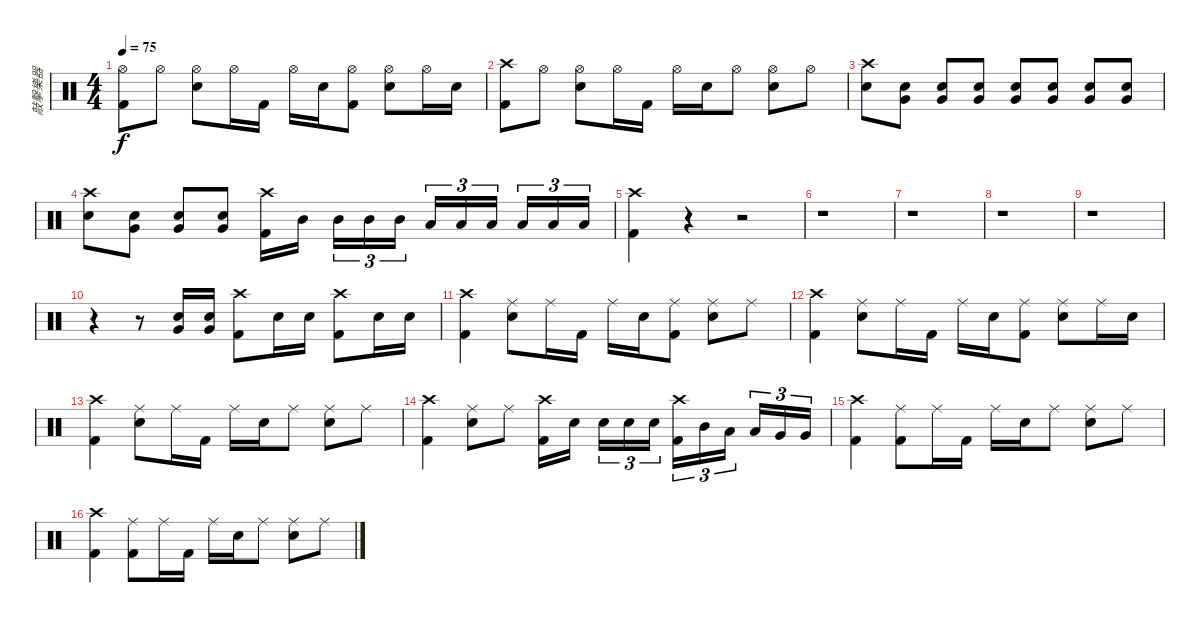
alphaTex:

\track ("敲擊樂器" "敲擊樂器") {instrument percussion}
\staff {score}
\articulation defaults
\ts (4 4)
\tempo 75
\clef neutral
\ks c
("Hi-Hat (open)" "Kick (hit) 2").8{dy f} "Hi-Hat (open)".8 ("Hi-Hat (open)" "Snare (hit) 2").8 "Hi-Hat (open)".16 "Kick (hit) 2".16 "Hi-Hat (open)".16 "Snare (hit) 2".16 ("Hi-Hat (open)" "Kick (hit) 2").8 ("Hi-Hat (open)" "Snare (hit) 2").8 "Hi-Hat (open)".16 "Snare (hit) 2".16 |
("Crash high (hit)" "Kick (hit) 2").8 "Hi-Hat (open)".8 ("Hi-Hat (open)" "Snare (hit) 2").8 "Hi-Hat (open)".16 "Kick (hit) 2".16 "Hi-Hat (open)".16 "Snare (hit) 2".16 "Hi-Hat (open)".8 ("Hi-Hat (open)" "Snare (hit) 2").8 "Hi-Hat (open)".8 |
("Crash high (hit)" "Snare (hit) 2").8 ("Snare (hit) 2" "Very Low Tom (hit)").8 ("Snare (hit) 2" "Very Low Tom (hit)").8 ("Snare (hit) 2" "Very Low Tom (hit)").8 ("Snare (hit) 2" "Very Low Tom (hit)").8 ("Snare (hit) 2" "Very Low Tom (hit)").8 ("Snare (hit) 2" "Very Low Tom (hit)").8 ("Snare (hit) 2" "Very Low Tom (hit)").8 |
("Crash high (hit)" "Snare (hit) 2").8 ("Snare (hit) 2" "Very Low Tom (hit)").8 ("Snare (hit) 2" "Very Low Tom (hit)").8 ("Snare (hit) 2" "Very Low Tom (hit)").8 ("Crash high (hit)" "Kick (hit) 2").16 "Mid Tom (hit)".16 "Mid Tom (hit)".16{tu (3 2)} "Mid Tom (hit)".16{tu (3 2)} "Mid Tom (hit)".16{tu (3 2)} "Low Tom (hit)".16{tu (3 2)} "Low Tom (hit)".16{tu (3 2)} "Low Tom (hit)".16{tu (3 2)} "Low Tom (hit)".16{tu (3 2)} "Low Tom (hit)".16{tu (3 2)} "Low Tom (hit)".16{tu (3 2)} |
("Kick (hit) 2" "Crash high (hit)").4 r.4 r.2 |
r.1 |
r.1 |
r.1 |
r.1 |
r.4 r.8 ("Very Low Tom (hit)" "Snare (hit) 2").16 ("Very Low Tom (hit)" "Snare (hit) 2").16 ("Crash high (hit)" "Kick (hit) 2").8 "Snare (hit) 2".16 "Snare (hit) 2".16 ("Crash high (hit)" "Kick (hit) 2").8 "Snare (hit) 2".16 "Snare (hit) 2".16 |
("Crash high (hit)" "Kick (hit) 2").4 ("Ride (middle)" "Snare (hit) 2").8 "Ride (middle)".16 "Kick (hit) 2".16 "Ride (middle)".16 "Snare (hit) 2".16 ("Ride (middle)" "Kick (hit) 2").8 ("Ride (middle)" "Snare (hit) 2").8 "Ride (middle)".8 |
("Crash high (hit)" "Kick (hit) 2").4 ("Ride (middle)" "Snare (hit) 2").8 "Ride (middle)".16 "Kick (hit) 2".16 "Ride (middle)".16 "Snare (hit) 2".16 ("Ride (middle)" "Kick (hit) 2").8 ("Ride (middle)" "Snare (hit) 2").8 "Ride (middle)".16 "Snare (hit) 2".16 |
("Crash high (hit)" "Kick (hit) 2").4 ("Ride (middle)" "Snare (hit) 2").8 "Ride (middle)".16 "Kick (hit) 2".16 "Ride (middle)".16 "Snare (hit) 2".16 "Ride (middle)".8 ("Ride (middle)" "Snare (hit) 2").8 "Ride (middle)".8 |
("Kick (hit) 2" "Crash high (hit)").4 ("Ride (middle)" "Snare (hit) 2").8 "Ride (middle)".8 ("Crash high (hit)" "Kick (hit) 2").16 "Snare (hit) 2".16 "Snare (hit) 2".16{tu (3 2)} "Snare (hit) 2".16{tu (3 2)} "Snare (hit) 2".16{tu (3 2)} ("Crash high (hit)" "Kick (hit) 2").16{tu (3 2)} "Mid Tom (hit)".16{tu (3 2)} "Low Tom (hit)".16{tu (3 2)} "Low Tom (hit)".16{tu (3 2)} "Very Low Tom (hit)".16{tu (3 2)} "Very Low Tom (hit)".16{tu (3 2)} |
("Kick (hit) 2" "Crash high (hit)").4 ("Ride (middle)" "Kick (hit) 2").8 "Ride (middle)".16 "Kick (hit) 2".16 "Ride (middle)".16 "Snare (hit) 2".16 "Ride (middle)".8 ("Ride (middle)" "Snare (hit) 2").8 "Ride (middle)".8 |
("Kick (hit) 2" "Crash high (hit)").4 ("Ride (middle)" "Kick (hit) 2").8 "Ride (middle)".16 "Kick (hit) 2".16 "Ride (middle)".16 "Snare (hit) 2".16 "Ride (middle)".8 ("Ride (middle)" "Snare (hit) 2").8 "Ride (middle)".8
